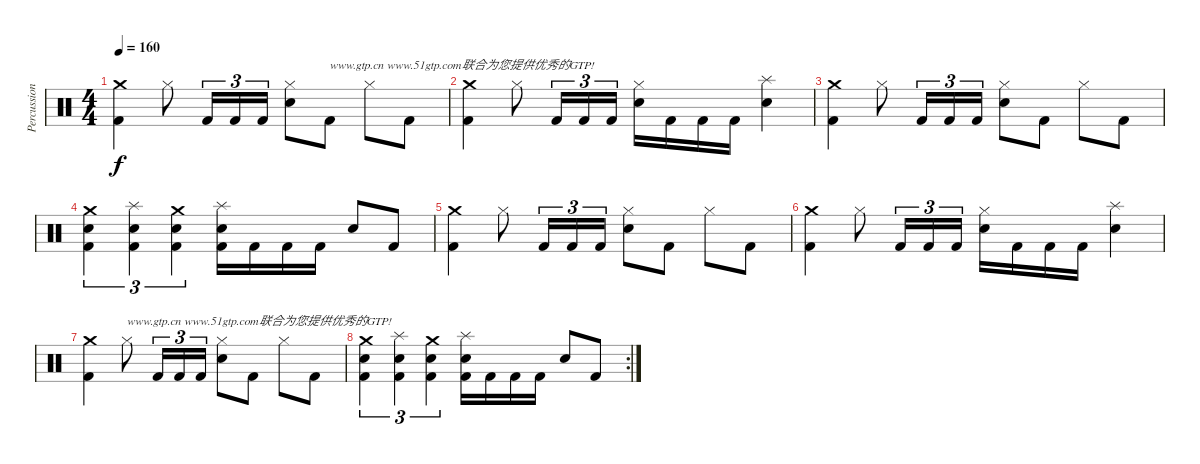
\track ("Percussion" "Percussion") {instrument percussion}
\staff {score}
\articulation defaults
\ts (4 4)
\tempo 160
\clef neutral
\ks c
("Crash medium (hit)" "Kick (hit) 2").4{dy f} "Hi-Hat (closed)".8 "Kick (hit) 2".16{tu (3 2)} "Kick (hit) 2".16{tu (3 2)} "Kick (hit) 2".16{tu (3 2)} ("Hi-Hat (closed)" "Electric Snare (hit)").8 "Kick (hit) 2".8{txt "www.gtp.cn www.51gtp.com联合为您提供优秀的GTP!"} "Hi-Hat (closed)".8 "Kick (hit) 2".8 |
("Crash medium (hit)" "Kick (hit) 2").4 "Hi-Hat (closed)".8 "Kick (hit) 2".16{tu (3 2)} "Kick (hit) 2".16{tu (3 2)} "Kick (hit) 2".16{tu (3 2)} ("Hi-Hat (closed)" "Electric Snare (hit)").16 "Kick (hit) 2".16 "Kick (hit) 2".16 "Kick (hit) 2".16 ("Splash (hit)" "Electric Snare (hit)").4 |
("Crash medium (hit)" "Kick (hit) 2").4 "Hi-Hat (closed)".8 "Kick (hit) 2".16{tu (3 2)} "Kick (hit) 2".16{tu (3 2)} "Kick (hit) 2".16{tu (3 2)} ("Hi-Hat (closed)" "Electric Snare (hit)").8 "Kick (hit) 2".8 "Hi-Hat (closed)".8 "Kick (hit) 2".8 |
("Crash medium (hit)" "Electric Snare (hit)" "Kick (hit) 2").4{tu (3 2)} ("Splash (hit)" "Electric Snare (hit)" "Kick (hit) 2").4{tu (3 2)} ("Crash medium (hit)" "Electric Snare (hit)" "Kick (hit) 2").4{tu (3 2)} ("Splash (hit)" "Electric Snare (hit)" "Kick (hit) 2").16 "Kick (hit) 2".16 "Kick (hit) 2".16 "Kick (hit) 2".16 "Electric Snare (hit)".8 "Kick (hit) 2".8 |
("Crash medium (hit)" "Kick (hit) 2").4 "Hi-Hat (closed)".8 "Kick (hit) 2".16{tu (3 2)} "Kick (hit) 2".16{tu (3 2)} "Kick (hit) 2".16{tu (3 2)} ("Hi-Hat (closed)" "Electric Snare (hit)").8 "Kick (hit) 2".8 "Hi-Hat (closed)".8 "Kick (hit) 2".8 |
("Crash medium (hit)" "Kick (hit) 2").4 "Hi-Hat (closed)".8 "Kick (hit) 2".16{tu (3 2)} "Kick (hit) 2".16{tu (3 2)} "Kick (hit) 2".16{tu (3 2)} ("Hi-Hat (closed)" "Electric Snare (hit)").16 "Kick (hit) 2".16 "Kick (hit) 2".16 "Kick (hit) 2".16 ("Splash (hit)" "Electric Snare (hit)").4 |
("Crash medium (hit)" "Kick (hit) 2").4 "Hi-Hat (closed)".8{txt "www.gtp.cn www.51gtp.com联合为您提供优秀的GTP!"} "Kick (hit) 2".16{tu (3 2)} "Kick (hit) 2".16{tu (3 2)} "Kick (hit) 2".16{tu (3 2)} ("Hi-Hat (closed)" "Electric Snare (hit)").8 "Kick (hit) 2".8 "Hi-Hat (closed)".8 "Kick (hit) 2".8 |
\rc 2
("Crash medium (hit)" "Electric Snare (hit)" "Kick (hit) 2").4{tu (3 2)} ("Splash (hit)" "Electric Snare (hit)" "Kick (hit) 2").4{tu (3 2)} ("Crash medium (hit)" "Electric Snare (hit)" "Kick (hit) 2").4{tu (3 2)} ("Splash (hit)" "Electric Snare (hit)" "Kick (hit) 2").16 "Kick (hit) 2".16 "Kick (hit) 2".16 "Kick (hit) 2".16 "Electric Snare (hit)".8 "Kick (hit) 2".8
